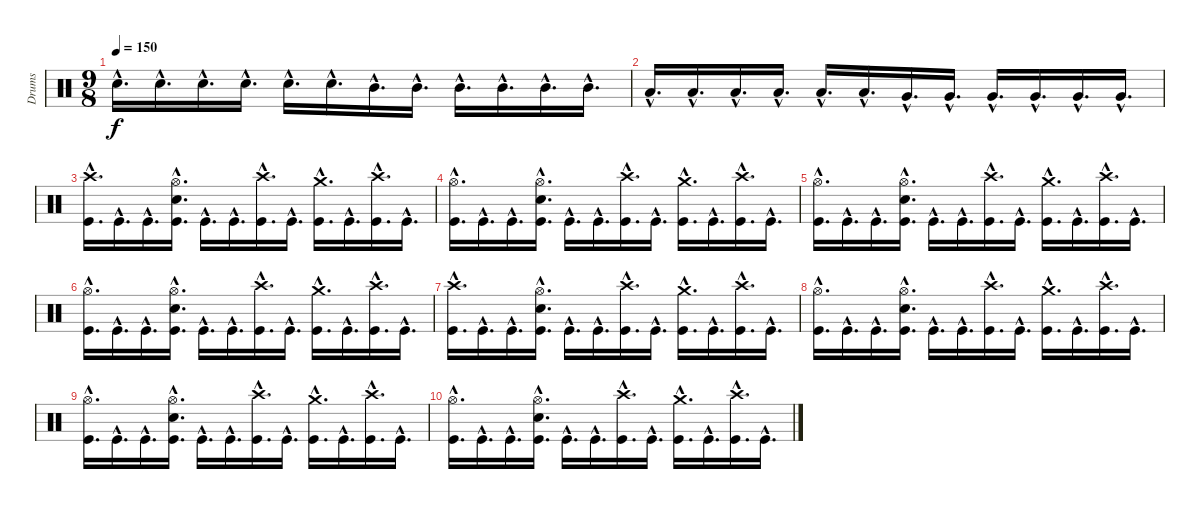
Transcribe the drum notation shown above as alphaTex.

\track ("Drums" "Drums") {instrument percussion}
\staff {score}
\articulation defaults
\ts (9 8)
\tempo 150
\clef neutral
\ks c "Snare (hit) 2"{hac}.16{d dy f} "Snare (hit) 2"{hac}.16{d} "Snare (hit) 2"{hac}.16{d} "Snare (hit) 2"{hac}.16{d} "Snare (hit) 2"{hac}.16{d} "Snare (hit) 2"{hac}.16{d} "Mid Tom (hit)"{hac}.16{d} "Mid Tom (hit)"{hac}.16{d} "Mid Tom (hit)"{hac}.16{d} "Mid Tom (hit)"{hac}.16{d} "Mid Tom (hit)"{hac}.16{d} "Mid Tom (hit)"{hac}.16{d}
|
"Low Tom (hit)"{hac}.16{d} "Low Tom (hit)"{hac}.16{d} "Low Tom (hit)"{hac}.16{d} "Low Tom (hit)"{hac}.16{d} "Low Tom (hit)"{hac}.16{d} "Low Tom (hit)"{hac}.16{d} "Very Low Tom (hit)"{hac}.16{d} "Very Low Tom (hit)"{hac}.16{d} "Very Low Tom (hit)"{hac}.16{d} "Very Low Tom (hit)"{hac}.16{d} "Very Low Tom (hit)"{hac}.16{d} "Very Low Tom (hit)"{hac}.16{d} |
("Crash high (hit)"{hac} "Kick (hit)"{hac}).16{d} "Kick (hit)"{hac}.16{d} "Kick (hit)"{hac}.16{d} ("Hi-Hat (open)"{hac} "Snare (hit) 2"{hac} "Kick (hit)"{hac}).16{d} "Kick (hit)"{hac}.16{d} "Kick (hit)"{hac}.16{d} ("Crash high (hit)"{hac} "Kick (hit)"{hac}).16{d} "Kick (hit)"{hac}.16{d} ("Crash medium (hit)"{hac} "Kick (hit)"{hac}).16{d} "Kick (hit)"{hac}.16{d} ("Crash high (hit)"{hac} "Kick (hit)"{hac}).16{d} "Kick (hit)"{hac}.16{d} |
("Hi-Hat (open)"{hac} "Kick (hit)"{hac}).16{d} "Kick (hit)"{hac}.16{d} "Kick (hit)"{hac}.16{d} ("Hi-Hat (open)"{hac} "Snare (hit) 2"{hac} "Kick (hit)"{hac}).16{d} "Kick (hit)"{hac}.16{d} "Kick (hit)"{hac}.16{d} ("Crash high (hit)"{hac} "Kick (hit)"{hac}).16{d} "Kick (hit)"{hac}.16{d} ("Crash medium (hit)"{hac} "Kick (hit)"{hac}).16{d} "Kick (hit)"{hac}.16{d} ("Crash high (hit)"{hac} "Kick (hit)"{hac}).16{d} "Kick (hit)"{hac}.16{d} |
("Hi-Hat (open)"{hac} "Kick (hit)"{hac}).16{d} "Kick (hit)"{hac}.16{d} "Kick (hit)"{hac}.16{d} ("Hi-Hat (open)"{hac} "Snare (hit) 2"{hac} "Kick (hit)"{hac}).16{d} "Kick (hit)"{hac}.16{d} "Kick (hit)"{hac}.16{d} ("Crash high (hit)"{hac} "Kick (hit)"{hac}).16{d} "Kick (hit)"{hac}.16{d} ("Crash medium (hit)"{hac} "Kick (hit)"{hac}).16{d} "Kick (hit)"{hac}.16{d} ("Crash high (hit)"{hac} "Kick (hit)"{hac}).16{d} "Kick (hit)"{hac}.16{d} |
("Hi-Hat (open)"{hac} "Kick (hit)"{hac}).16{d} "Kick (hit)"{hac}.16{d} "Kick (hit)"{hac}.16{d} ("Hi-Hat (open)"{hac} "Snare (hit) 2"{hac} "Kick (hit)"{hac}).16{d} "Kick (hit)"{hac}.16{d} "Kick (hit)"{hac}.16{d} ("Crash high (hit)"{hac} "Kick (hit)"{hac}).16{d} "Kick (hit)"{hac}.16{d} ("Crash medium (hit)"{hac} "Kick (hit)"{hac}).16{d} "Kick (hit)"{hac}.16{d} ("Crash high (hit)"{hac} "Kick (hit)"{hac}).16{d} "Kick (hit)"{hac}.16{d} |
("Crash high (hit)"{hac} "Kick (hit)"{hac}).16{d} "Kick (hit)"{hac}.16{d} "Kick (hit)"{hac}.16{d} ("Hi-Hat (open)"{hac} "Snare (hit) 2"{hac} "Kick (hit)"{hac}).16{d} "Kick (hit)"{hac}.16{d} "Kick (hit)"{hac}.16{d} ("Crash high (hit)"{hac} "Kick (hit)"{hac}).16{d} "Kick (hit)"{hac}.16{d} ("Crash medium (hit)"{hac} "Kick (hit)"{hac}).16{d} "Kick (hit)"{hac}.16{d} ("Crash high (hit)"{hac} "Kick (hit)"{hac}).16{d} "Kick (hit)"{hac}.16{d} |
("Hi-Hat (open)"{hac} "Kick (hit)"{hac}).16{d} "Kick (hit)"{hac}.16{d} "Kick (hit)"{hac}.16{d} ("Hi-Hat (open)"{hac} "Snare (hit) 2"{hac} "Kick (hit)"{hac}).16{d} "Kick (hit)"{hac}.16{d} "Kick (hit)"{hac}.16{d} ("Crash high (hit)"{hac} "Kick (hit)"{hac}).16{d} "Kick (hit)"{hac}.16{d} ("Crash medium (hit)"{hac} "Kick (hit)"{hac}).16{d} "Kick (hit)"{hac}.16{d} ("Crash high (hit)"{hac} "Kick (hit)"{hac}).16{d} "Kick (hit)"{hac}.16{d} |
("Hi-Hat (open)"{hac} "Kick (hit)"{hac}).16{d} "Kick (hit)"{hac}.16{d} "Kick (hit)"{hac}.16{d} ("Hi-Hat (open)"{hac} "Snare (hit) 2"{hac} "Kick (hit)"{hac}).16{d} "Kick (hit)"{hac}.16{d} "Kick (hit)"{hac}.16{d} ("Crash high (hit)"{hac} "Kick (hit)"{hac}).16{d} "Kick (hit)"{hac}.16{d} ("Crash medium (hit)"{hac} "Kick (hit)"{hac}).16{d} "Kick (hit)"{hac}.16{d} ("Crash high (hit)"{hac} "Kick (hit)"{hac}).16{d} "Kick (hit)"{hac}.16{d} |
("Hi-Hat (open)"{hac} "Kick (hit)"{hac}).16{d} "Kick (hit)"{hac}.16{d} "Kick (hit)"{hac}.16{d} ("Hi-Hat (open)"{hac} "Snare (hit) 2"{hac} "Kick (hit)"{hac}).16{d} "Kick (hit)"{hac}.16{d} "Kick (hit)"{hac}.16{d} ("Crash high (hit)"{hac} "Kick (hit)"{hac}).16{d} "Kick (hit)"{hac}.16{d} ("Crash medium (hit)"{hac} "Kick (hit)"{hac}).16{d} "Kick (hit)"{hac}.16{d} ("Crash high (hit)"{hac} "Kick (hit)"{hac}).16{d} "Kick (hit)"{hac}.16{d}
